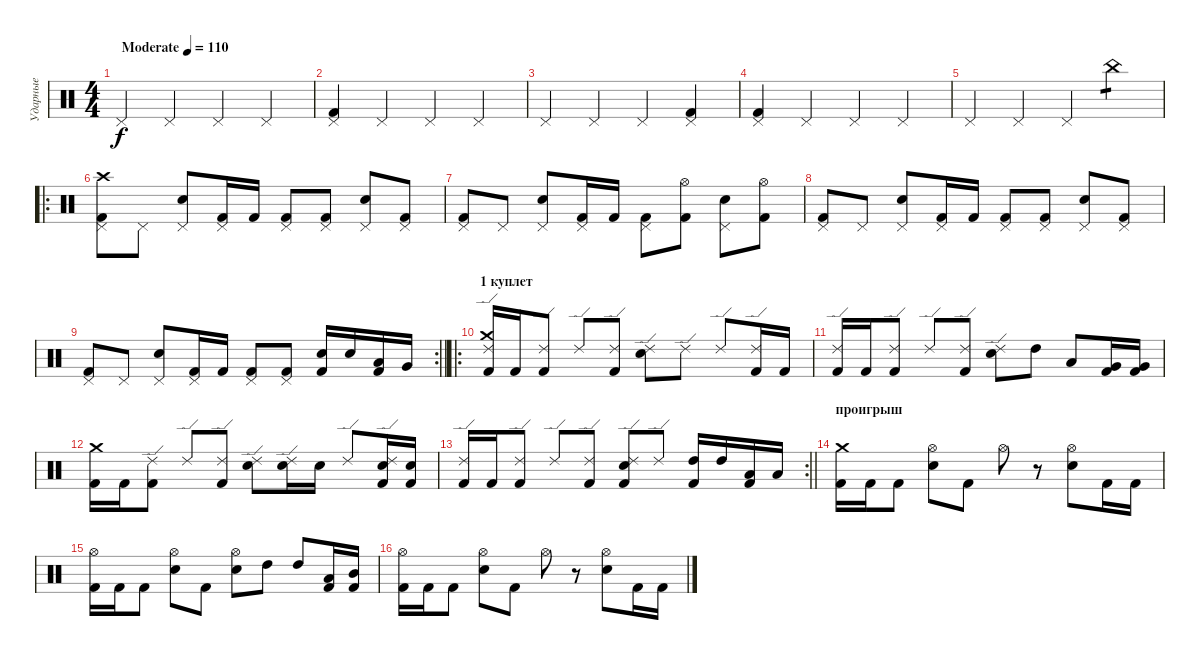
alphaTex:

\track ("Ударные" "Ударные") {instrument percussion}
\staff {score}
\articulation defaults
\ts (4 4)
\tempo (110 "Moderate")
\clef neutral
\ks c "Pedal Hi-Hat (hit)".4{dy f} "Pedal Hi-Hat (hit)".4 "Pedal Hi-Hat (hit)".4 "Pedal Hi-Hat (hit)".4
|
("Pedal Hi-Hat (hit)" "Kick (hit) 2").4 "Pedal Hi-Hat (hit)".4 "Pedal Hi-Hat (hit)".4 "Pedal Hi-Hat (hit)".4 |
"Pedal Hi-Hat (hit)".4 "Pedal Hi-Hat (hit)".4 "Pedal Hi-Hat (hit)".4 ("Pedal Hi-Hat (hit)" "Kick (hit) 2").4 |
("Pedal Hi-Hat (hit)" "Kick (hit) 2").4 "Pedal Hi-Hat (hit)".4 "Pedal Hi-Hat (hit)".4 "Pedal Hi-Hat (hit)".4 |
"Pedal Hi-Hat (hit)".4 "Pedal Hi-Hat (hit)".4 "Pedal Hi-Hat (hit)".4 "China (hit)".4{tp 1} |
\ro
("Crash high (hit)" "Pedal Hi-Hat (hit)" "Kick (hit) 2").8 "Pedal Hi-Hat (hit)".8 ("Pedal Hi-Hat (hit)" "Snare (hit) 2").8 ("Pedal Hi-Hat (hit)" "Kick (hit) 2").16 "Kick (hit) 2".16 ("Pedal Hi-Hat (hit)" "Kick (hit) 2").8 ("Pedal Hi-Hat (hit)" "Kick (hit) 2").8 ("Pedal Hi-Hat (hit)" "Snare (hit) 2").8 ("Pedal Hi-Hat (hit)" "Kick (hit) 2").8 |
("Pedal Hi-Hat (hit)" "Kick (hit) 2").8 "Pedal Hi-Hat (hit)".8 ("Pedal Hi-Hat (hit)" "Snare (hit) 2").8 ("Pedal Hi-Hat (hit)" "Kick (hit) 2").16 "Kick (hit) 2".16 ("Pedal Hi-Hat (hit)" "Kick (hit) 2").8 ("Hi-Hat (open)" "Kick (hit) 2").8 ("Pedal Hi-Hat (hit)" "Snare (hit) 2").8 ("Hi-Hat (open)" "Kick (hit) 2").8 |
("Pedal Hi-Hat (hit)" "Kick (hit) 2").8 "Pedal Hi-Hat (hit)".8 ("Pedal Hi-Hat (hit)" "Snare (hit) 2").8 ("Pedal Hi-Hat (hit)" "Kick (hit) 2").16 "Kick (hit) 2".16 ("Pedal Hi-Hat (hit)" "Kick (hit) 2").8 ("Pedal Hi-Hat (hit)" "Kick (hit) 2").8 ("Pedal Hi-Hat (hit)" "Snare (hit) 2").8 ("Pedal Hi-Hat (hit)" "Kick (hit) 2").8 |
\rc 2
\barLineRight lightlight
("Pedal Hi-Hat (hit)" "Kick (hit) 2").8 "Pedal Hi-Hat (hit)".8 ("Pedal Hi-Hat (hit)" "Snare (hit) 2").8 ("Pedal Hi-Hat (hit)" "Kick (hit) 2").16 "Kick (hit) 2".16 ("Pedal Hi-Hat (hit)" "Kick (hit) 2").8 ("Pedal Hi-Hat (hit)" "Kick (hit) 2").8 ("Snare (hit) 2" "Kick (hit) 2").16 "Snare (hit) 2".16 ("Low Tom (hit)" "Kick (hit) 2").16 "Very Low Tom (hit)".16 |
\ro
\section ("" "1 куплет")
("Crash medium (hit)" "Ride (edge) 2" "Kick (hit) 2").16 "Kick (hit) 2".16 ("Ride (edge) 2" "Kick (hit) 2").8 "Ride (edge) 2".8 ("Ride (edge) 2" "Kick (hit) 2").8 ("Ride (edge) 2" "Snare (hit) 2").8 "Ride (edge) 2".8 "Ride (edge) 2".8 ("Ride (edge) 2" "Kick (hit) 2").16 "Kick (hit) 2".16 |
("Ride (edge) 2" "Kick (hit) 2").16 "Kick (hit) 2".16 ("Ride (edge) 2" "Kick (hit) 2").8 "Ride (edge) 2".8 ("Ride (edge) 2" "Kick (hit) 2").8 ("Ride (edge) 2" "Snare (hit) 2").8 "High Tom (hit)".8 "Low Tom (hit)".8 ("Very Low Tom (hit)" "Kick (hit) 2").16 ("Very Low Tom (hit)" "Kick (hit) 2").16 |
("Crash medium (hit)" "Kick (hit) 2").16 "Kick (hit) 2".16 ("Ride (edge) 2" "Kick (hit) 2").8 "Ride (edge) 2".8 ("Ride (edge) 2" "Kick (hit) 2").8 ("Ride (edge) 2" "Snare (hit) 2").8 ("Ride (edge) 2" "Snare (hit) 2").16 "Snare (hit) 2".16 "Ride (edge) 2".8 ("Ride (edge) 2" "Snare (hit) 2" "Kick (hit) 2").16 ("Snare (hit) 2" "Kick (hit) 2").16 |
\rc 2
\barLineRight lightlight
("Ride (edge) 2" "Kick (hit) 2").16 "Kick (hit) 2".16 ("Ride (edge) 2" "Kick (hit) 2").8 "Ride (edge) 2".8 ("Ride (edge) 2" "Kick (hit) 2").8 ("Ride (edge) 2" "Snare (hit) 2" "Kick (hit) 2").8 "Ride (edge) 2".8 ("High Tom (hit)" "Kick (hit) 2").16 "High Tom (hit)".16 ("Low Tom (hit)" "Kick (hit) 2").16 "Low Tom (hit)".16 |
\section ("" "проигрыш")
("Crash medium (hit)" "Kick (hit) 2").16 "Kick (hit) 2".16 "Kick (hit) 2".8 ("Hi-Hat (open)" "Snare (hit) 2").8 "Kick (hit) 2".8 "Hi-Hat (open)".8 r.8 ("Hi-Hat (open)" "Snare (hit) 2").8 "Kick (hit) 2".16 "Kick (hit) 2".16 |
("Hi-Hat (open)" "Kick (hit) 2").16 "Kick (hit) 2".16 "Kick (hit) 2".8 ("Hi-Hat (open)" "Snare (hit) 2").8 "Kick (hit) 2".8 ("Hi-Hat (open)" "Snare (hit) 2").8 "High Tom (hit)".8 "High Tom (hit)".8 ("Low Tom (hit)" "Kick (hit) 2").16 ("Mid Tom (hit)" "Kick (hit) 2").16 |
("Hi-Hat (open)" "Kick (hit) 2").16 "Kick (hit) 2".16 "Kick (hit) 2".8 ("Hi-Hat (open)" "Snare (hit) 2").8 "Kick (hit) 2".8 "Hi-Hat (open)".8 r.8 ("Hi-Hat (open)" "Snare (hit) 2").8 "Kick (hit) 2".16 "Kick (hit) 2".16
